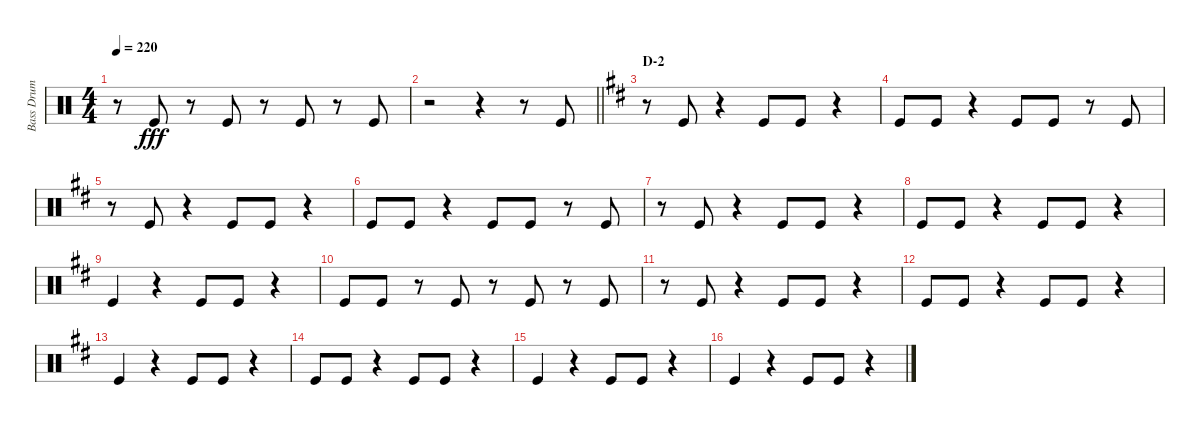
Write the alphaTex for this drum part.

\track ("Bass Drum" "Bass Drum") {instrument percussion}
\staff {score}
\articulation defaults
\ts (4 4)
\tempo 220
\clef neutral
\ks c
r.8{dy fff} "Kick (hit)".8 r.8 "Kick (hit)".8 r.8 "Kick (hit)".8 r.8 "Kick (hit)".8 |
\barLineRight lightlight
r.2 r.4 r.8 "Kick (hit)".8 |
\section ("" "D-2")
\ks d
r.8 "Kick (hit)".8 r.4 "Kick (hit)".8 "Kick (hit)".8 r.4 |
"Kick (hit)".8 "Kick (hit)".8 r.4 "Kick (hit)".8 "Kick (hit)".8 r.8 "Kick (hit)".8 |
r.8 "Kick (hit)".8 r.4 "Kick (hit)".8 "Kick (hit)".8 r.4 |
"Kick (hit)".8 "Kick (hit)".8 r.4 "Kick (hit)".8 "Kick (hit)".8 r.8 "Kick (hit)".8 |
r.8 "Kick (hit)".8 r.4 "Kick (hit)".8 "Kick (hit)".8 r.4 |
"Kick (hit)".8 "Kick (hit)".8 r.4 "Kick (hit)".8 "Kick (hit)".8 r.4 |
"Kick (hit)".4 r.4 "Kick (hit)".8 "Kick (hit)".8 r.4 |
"Kick (hit)".8 "Kick (hit)".8 r.8 "Kick (hit)".8 r.8 "Kick (hit)".8 r.8 "Kick (hit)".8 |
r.8 "Kick (hit)".8 r.4 "Kick (hit)".8 "Kick (hit)".8 r.4 |
"Kick (hit)".8 "Kick (hit)".8 r.4 "Kick (hit)".8 "Kick (hit)".8 r.4 |
"Kick (hit)".4 r.4 "Kick (hit)".8 "Kick (hit)".8 r.4 |
"Kick (hit)".8 "Kick (hit)".8 r.4 "Kick (hit)".8 "Kick (hit)".8 r.4 |
"Kick (hit)".4 r.4 "Kick (hit)".8 "Kick (hit)".8 r.4 |
"Kick (hit)".4 r.4 "Kick (hit)".8 "Kick (hit)".8 r.4
